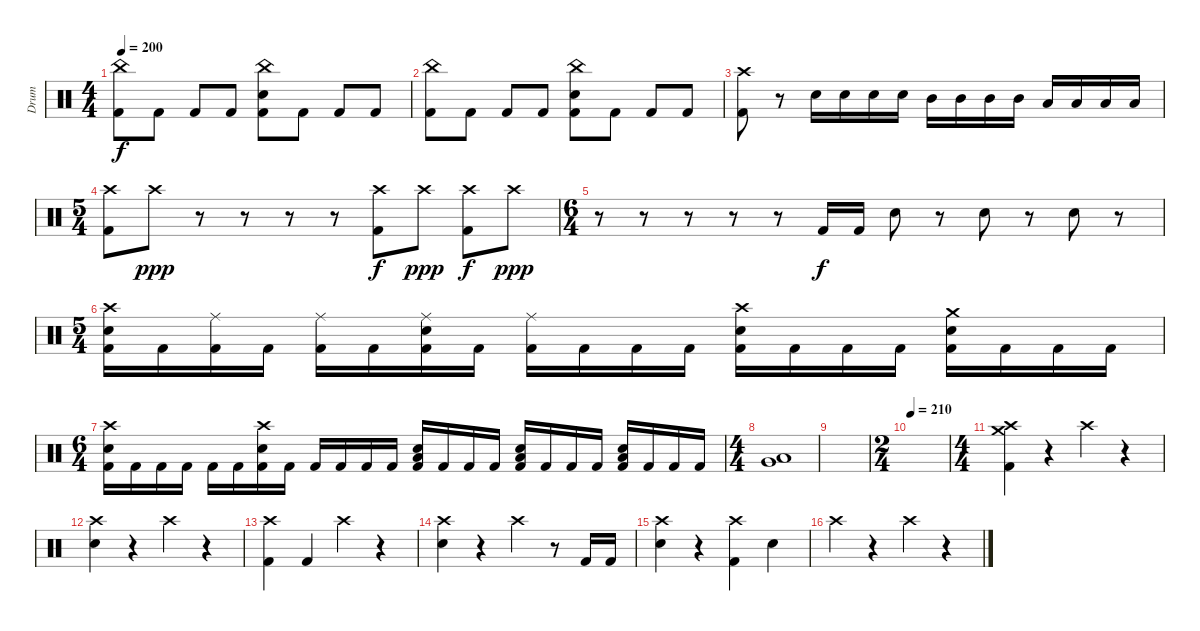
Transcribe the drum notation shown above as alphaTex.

\track ("Drum" "Drum") {instrument percussion}
\staff {score}
\articulation defaults
\ts (4 4)
\tempo 200
\clef neutral
\ks c
("China (hit)" "Kick (hit) 2").8{dy f} "Kick (hit) 2".8 "Kick (hit) 2".8 "Kick (hit) 2".8 ("China (hit)" "Snare (hit) 2" "Kick (hit) 2").8 "Kick (hit) 2".8 "Kick (hit) 2".8 "Kick (hit) 2".8 |
("China (hit)" "Kick (hit) 2").8 "Kick (hit) 2".8 "Kick (hit) 2".8 "Kick (hit) 2".8 ("China (hit)" "Snare (hit) 2" "Kick (hit) 2").8 "Kick (hit) 2".8 "Kick (hit) 2".8 "Kick (hit) 2".8 |
("Crash high (hit)" "Kick (hit) 2").8 r.8 "Snare (hit) 2".16 "Snare (hit) 2".16 "Snare (hit) 2".16 "Snare (hit) 2".16 "Mid Tom (hit)".16 "Mid Tom (hit)".16 "Mid Tom (hit)".16 "Mid Tom (hit)".16 "Low Tom (hit)".16 "Low Tom (hit)".16 "Low Tom (hit)".16 "Low Tom (hit)".16 |
\ts (5 4)
("Crash high (hit)" "Kick (hit) 2").8 "Crash high (hit)".8{dy ppp} r.8 r.8 r.8 r.8 ("Crash high (hit)" "Kick (hit) 2").8{dy f} "Crash high (hit)".8{dy ppp} ("Crash high (hit)" "Kick (hit) 2").8{dy f} "Crash high (hit)".8{dy ppp} |
\ts (6 4)
r.8 r.8 r.8 r.8 r.8 "Kick (hit) 2".16{dy f} "Kick (hit) 2".16 "Snare (hit) 2".8 r.8 "Snare (hit) 2".8 r.8 "Snare (hit) 2".8 r.8 |
\ts (5 4)
("Crash high (hit)" "Snare (hit) 2" "Kick (hit) 2").16 "Kick (hit) 2".16 ("Ride (middle)" "Kick (hit) 2").16 "Kick (hit) 2".16 ("Ride (middle)" "Kick (hit) 2").16 "Kick (hit) 2".16 ("Ride (middle)" "Snare (hit) 2" "Kick (hit) 2").16 "Kick (hit) 2".16 ("Ride (middle)" "Kick (hit) 2").16 "Kick (hit) 2".16 "Kick (hit) 2".16 "Kick (hit) 2".16 ("Crash high (hit)" "Snare (hit) 2" "Kick (hit) 2").16 "Kick (hit) 2".16 "Kick (hit) 2".16 "Kick (hit) 2".16 ("Crash medium (hit)" "Snare (hit) 2" "Kick (hit) 2").16 "Kick (hit) 2".16 "Kick (hit) 2".16 "Kick (hit) 2".16 |
\ts (6 4)
("Crash high (hit)" "Snare (hit) 2" "Kick (hit) 2").16 "Kick (hit) 2".16 "Kick (hit) 2".16 "Kick (hit) 2".16 "Kick (hit) 2".16 "Kick (hit) 2".16 ("Crash high (hit)" "Snare (hit) 2" "Kick (hit) 2").16 "Kick (hit) 2".16 "Kick (hit) 2".16 "Kick (hit) 2".16 "Kick (hit) 2".16 "Kick (hit) 2".16 ("Low Floor Tom (hit)" "Snare (hit) 2" "Kick (hit) 2").16 "Kick (hit) 2".16 "Kick (hit) 2".16 "Kick (hit) 2".16 ("Low Floor Tom (hit)" "Snare (hit) 2" "Kick (hit) 2").16 "Kick (hit) 2".16 "Kick (hit) 2".16 "Kick (hit) 2".16 ("Low Floor Tom (hit)" "Snare (hit) 2" "Kick (hit) 2").16 "Kick (hit) 2".16 "Kick (hit) 2".16 "Kick (hit) 2".16 |
\ts (4 4)
("Very Low Tom (hit)" "Low Floor Tom (hit)").1 |
|
\ts (2 4)
\tempo 210
|
\ts (4 4)
("Crash medium (hit)" "Crash high (hit)" "Kick (hit) 2").4 r.4 "Crash high (hit)".4 r.4 |
("Crash high (hit)" "Snare (hit) 2").4 r.4 "Crash high (hit)".4 r.4 |
("Crash high (hit)" "Kick (hit) 2").4 "Kick (hit) 2".4 "Crash high (hit)".4 r.4 |
("Crash high (hit)" "Snare (hit) 2").4 r.4 "Crash high (hit)".4 r.8 "Kick (hit) 2".16 "Kick (hit) 2".16 |
("Crash high (hit)" "Snare (hit) 2").4 r.4 ("Crash high (hit)" "Kick (hit) 2").4 "Snare (hit) 2".4 |
"Crash high (hit)".4 r.4 "Crash high (hit)".4 r.4
